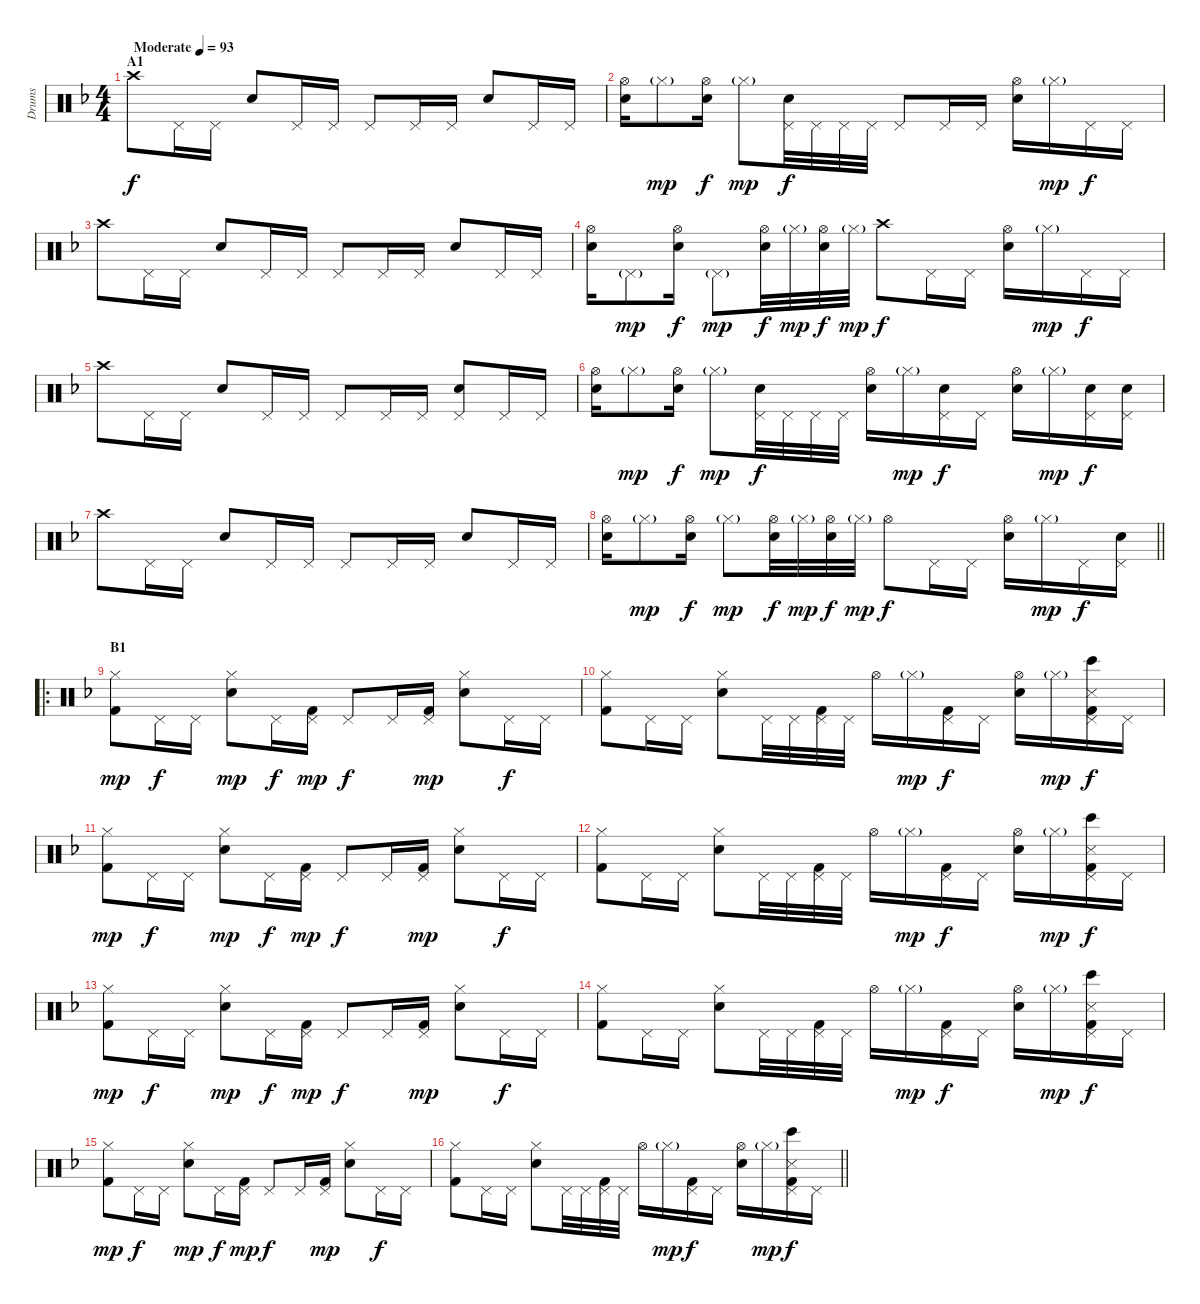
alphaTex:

\track ("Drums" "Drums") {instrument percussion}
\staff {score}
\articulation defaults
\ts (4 4)
\section ("" "A1")
\tempo (93 "Moderate")
\clef neutral
\ks f "Crash high (hit)".8{dy f} "Pedal Hi-Hat (hit)".16 "Pedal Hi-Hat (hit)".16 "Electric Snare (hit)".8 "Pedal Hi-Hat (hit)".16 "Pedal Hi-Hat (hit)".16 "Pedal Hi-Hat (hit)".8 "Pedal Hi-Hat (hit)".16 "Pedal Hi-Hat (hit)".16 "Electric Snare (hit)".8 "Pedal Hi-Hat (hit)".16 "Pedal Hi-Hat (hit)".16
|
("Hi-Hat (open)" "Electric Snare (hit)").16 "Hi-Hat (closed)"{g}.8{dy mp} ("Hi-Hat (open)" "Electric Snare (hit)").16{dy f} "Hi-Hat (closed)"{g}.8{dy mp} ("Pedal Hi-Hat (hit)" "Electric Snare (hit)").32{dy f} "Pedal Hi-Hat (hit)".32 "Pedal Hi-Hat (hit)".32 "Pedal Hi-Hat (hit)".32 "Pedal Hi-Hat (hit)".8 "Pedal Hi-Hat (hit)".16 "Pedal Hi-Hat (hit)".16 ("Hi-Hat (open)" "Electric Snare (hit)").16 "Hi-Hat (closed)"{g}.16{dy mp} "Pedal Hi-Hat (hit)".16{dy f} "Pedal Hi-Hat (hit)".16 |
"Crash high (hit)".8 "Pedal Hi-Hat (hit)".16 "Pedal Hi-Hat (hit)".16 "Electric Snare (hit)".8 "Pedal Hi-Hat (hit)".16 "Pedal Hi-Hat (hit)".16 "Pedal Hi-Hat (hit)".8 "Pedal Hi-Hat (hit)".16 "Pedal Hi-Hat (hit)".16 "Electric Snare (hit)".8 "Pedal Hi-Hat (hit)".16 "Pedal Hi-Hat (hit)".16 |
("Hi-Hat (open)" "Electric Snare (hit)").16 "Pedal Hi-Hat (hit)"{g}.8{dy mp} ("Hi-Hat (open)" "Electric Snare (hit)").16{dy f} "Pedal Hi-Hat (hit)"{g}.8{dy mp} ("Hi-Hat (open)" "Electric Snare (hit)").32{dy f} "Hi-Hat (closed)"{g}.32{dy mp} ("Hi-Hat (open)" "Electric Snare (hit)").32{dy f} "Hi-Hat (closed)"{g}.32{dy mp} "Crash high (hit)".8{dy f} "Pedal Hi-Hat (hit)".16 "Pedal Hi-Hat (hit)".16 ("Hi-Hat (open)" "Electric Snare (hit)").16 "Hi-Hat (closed)"{g}.16{dy mp} "Pedal Hi-Hat (hit)".16{dy f} "Pedal Hi-Hat (hit)".16 |
"Crash high (hit)".8 "Pedal Hi-Hat (hit)".16 "Pedal Hi-Hat (hit)".16 "Electric Snare (hit)".8 "Pedal Hi-Hat (hit)".16 "Pedal Hi-Hat (hit)".16 "Pedal Hi-Hat (hit)".8 "Pedal Hi-Hat (hit)".16 "Pedal Hi-Hat (hit)".16 ("Pedal Hi-Hat (hit)" "Electric Snare (hit)").8 "Pedal Hi-Hat (hit)".16 "Pedal Hi-Hat (hit)".16 |
("Hi-Hat (open)" "Electric Snare (hit)").16 "Hi-Hat (closed)"{g}.8{dy mp} ("Hi-Hat (open)" "Electric Snare (hit)").16{dy f} "Hi-Hat (closed)"{g}.8{dy mp} ("Pedal Hi-Hat (hit)" "Electric Snare (hit)").32{dy f} "Pedal Hi-Hat (hit)".32 "Pedal Hi-Hat (hit)".32 "Pedal Hi-Hat (hit)".32 ("Hi-Hat (open)" "Electric Snare (hit)").16 "Hi-Hat (closed)"{g}.16{dy mp} ("Pedal Hi-Hat (hit)" "Electric Snare (hit)").16{dy f} "Pedal Hi-Hat (hit)".16 ("Hi-Hat (open)" "Electric Snare (hit)").16 "Hi-Hat (closed)"{g}.16{dy mp} ("Pedal Hi-Hat (hit)" "Electric Snare (hit)").16{dy f} ("Pedal Hi-Hat (hit)" "Electric Snare (hit)").16 |
"Crash high (hit)".8 "Pedal Hi-Hat (hit)".16 "Pedal Hi-Hat (hit)".16 "Electric Snare (hit)".8 "Pedal Hi-Hat (hit)".16 "Pedal Hi-Hat (hit)".16 "Pedal Hi-Hat (hit)".8 "Pedal Hi-Hat (hit)".16 "Pedal Hi-Hat (hit)".16 "Electric Snare (hit)".8 "Pedal Hi-Hat (hit)".16 "Pedal Hi-Hat (hit)".16 |
\barLineRight lightlight
("Hi-Hat (open)" "Electric Snare (hit)").16 "Hi-Hat (closed)"{g}.8{dy mp} ("Hi-Hat (open)" "Electric Snare (hit)").16{dy f} "Hi-Hat (closed)"{g}.8{dy mp} ("Hi-Hat (open)" "Electric Snare (hit)").32{dy f} "Hi-Hat (closed)"{g}.32{dy mp} ("Hi-Hat (open)" "Electric Snare (hit)").32{dy f} "Hi-Hat (closed)"{g}.32{dy mp} "Hi-Hat (open)".8{dy f} "Pedal Hi-Hat (hit)".16 "Pedal Hi-Hat (hit)".16 ("Hi-Hat (open)" "Electric Snare (hit)").16 "Hi-Hat (closed)"{g}.16{dy mp} "Pedal Hi-Hat (hit)".16{dy f} ("Pedal Hi-Hat (hit)" "Electric Snare (hit)").16 |
\ro
\section ("" "B1")
("Hi-Hat (closed)" "Kick (hit) 2").8{dy mp} "Pedal Hi-Hat (hit)".16{dy f} "Pedal Hi-Hat (hit)".16 ("Hi-Hat (closed)" "Electric Snare (hit)").8{dy mp} "Pedal Hi-Hat (hit)".16{dy f} ("Pedal Hi-Hat (hit)" "Kick (hit) 2").16{dy mp} "Pedal Hi-Hat (hit)".8{dy f} "Pedal Hi-Hat (hit)".16 ("Pedal Hi-Hat (hit)" "Kick (hit) 2").16{dy mp} ("Hi-Hat (closed)" "Electric Snare (hit)").8 "Pedal Hi-Hat (hit)".16{dy f} "Pedal Hi-Hat (hit)".16 |
("Hi-Hat (closed)" "Kick (hit) 2").8 "Pedal Hi-Hat (hit)".16 "Pedal Hi-Hat (hit)".16 ("Hi-Hat (closed)" "Electric Snare (hit)").8 "Pedal Hi-Hat (hit)".32 "Pedal Hi-Hat (hit)".32 ("Pedal Hi-Hat (hit)" "Kick (hit) 2").32 "Pedal Hi-Hat (hit)".32 "Hi-Hat (open)".16 "Hi-Hat (closed)"{g}.16{dy mp} ("Pedal Hi-Hat (hit)" "Kick (hit) 2").16{dy f} "Pedal Hi-Hat (hit)".16 ("Hi-Hat (open)" "Electric Snare (hit)").16 "Hi-Hat (closed)"{g}.16{dy mp} ("Pedal Hi-Hat (hit)" "Snare (side stick) 3" "Bongo High (hit)" "Kick (hit) 2").16{dy f} "Pedal Hi-Hat (hit)".16 |
("Hi-Hat (closed)" "Kick (hit) 2").8{dy mp} "Pedal Hi-Hat (hit)".16{dy f} "Pedal Hi-Hat (hit)".16 ("Hi-Hat (closed)" "Electric Snare (hit)").8{dy mp} "Pedal Hi-Hat (hit)".16{dy f} ("Pedal Hi-Hat (hit)" "Kick (hit) 2").16{dy mp} "Pedal Hi-Hat (hit)".8{dy f} "Pedal Hi-Hat (hit)".16 ("Pedal Hi-Hat (hit)" "Kick (hit) 2").16{dy mp} ("Hi-Hat (closed)" "Electric Snare (hit)").8 "Pedal Hi-Hat (hit)".16{dy f} "Pedal Hi-Hat (hit)".16 |
("Hi-Hat (closed)" "Kick (hit) 2").8 "Pedal Hi-Hat (hit)".16 "Pedal Hi-Hat (hit)".16 ("Hi-Hat (closed)" "Electric Snare (hit)").8 "Pedal Hi-Hat (hit)".32 "Pedal Hi-Hat (hit)".32 ("Pedal Hi-Hat (hit)" "Kick (hit) 2").32 "Pedal Hi-Hat (hit)".32 "Hi-Hat (open)".16 "Hi-Hat (closed)"{g}.16{dy mp} ("Pedal Hi-Hat (hit)" "Kick (hit) 2").16{dy f} "Pedal Hi-Hat (hit)".16 ("Hi-Hat (open)" "Electric Snare (hit)").16 "Hi-Hat (closed)"{g}.16{dy mp} ("Pedal Hi-Hat (hit)" "Snare (side stick) 3" "Bongo High (hit)" "Kick (hit) 2").16{dy f} "Pedal Hi-Hat (hit)".16 |
("Hi-Hat (closed)" "Kick (hit) 2").8{dy mp} "Pedal Hi-Hat (hit)".16{dy f} "Pedal Hi-Hat (hit)".16 ("Hi-Hat (closed)" "Electric Snare (hit)").8{dy mp} "Pedal Hi-Hat (hit)".16{dy f} ("Pedal Hi-Hat (hit)" "Kick (hit) 2").16{dy mp} "Pedal Hi-Hat (hit)".8{dy f} "Pedal Hi-Hat (hit)".16 ("Pedal Hi-Hat (hit)" "Kick (hit) 2").16{dy mp} ("Hi-Hat (closed)" "Electric Snare (hit)").8 "Pedal Hi-Hat (hit)".16{dy f} "Pedal Hi-Hat (hit)".16 |
("Hi-Hat (closed)" "Kick (hit) 2").8 "Pedal Hi-Hat (hit)".16 "Pedal Hi-Hat (hit)".16 ("Hi-Hat (closed)" "Electric Snare (hit)").8 "Pedal Hi-Hat (hit)".32 "Pedal Hi-Hat (hit)".32 ("Pedal Hi-Hat (hit)" "Kick (hit) 2").32 "Pedal Hi-Hat (hit)".32 "Hi-Hat (open)".16 "Hi-Hat (closed)"{g}.16{dy mp} ("Pedal Hi-Hat (hit)" "Kick (hit) 2").16{dy f} "Pedal Hi-Hat (hit)".16 ("Hi-Hat (open)" "Electric Snare (hit)").16 "Hi-Hat (closed)"{g}.16{dy mp} ("Pedal Hi-Hat (hit)" "Snare (side stick) 3" "Bongo High (hit)" "Kick (hit) 2").16{dy f} "Pedal Hi-Hat (hit)".16 |
("Hi-Hat (closed)" "Kick (hit) 2").8{dy mp} "Pedal Hi-Hat (hit)".16{dy f} "Pedal Hi-Hat (hit)".16 ("Hi-Hat (closed)" "Electric Snare (hit)").8{dy mp} "Pedal Hi-Hat (hit)".16{dy f} ("Pedal Hi-Hat (hit)" "Kick (hit) 2").16{dy mp} "Pedal Hi-Hat (hit)".8{dy f} "Pedal Hi-Hat (hit)".16 ("Pedal Hi-Hat (hit)" "Kick (hit) 2").16{dy mp} ("Hi-Hat (closed)" "Electric Snare (hit)").8 "Pedal Hi-Hat (hit)".16{dy f} "Pedal Hi-Hat (hit)".16 |
\barLineRight lightlight
("Hi-Hat (closed)" "Kick (hit) 2").8 "Pedal Hi-Hat (hit)".16 "Pedal Hi-Hat (hit)".16 ("Hi-Hat (closed)" "Electric Snare (hit)").8 "Pedal Hi-Hat (hit)".32 "Pedal Hi-Hat (hit)".32 ("Pedal Hi-Hat (hit)" "Kick (hit) 2").32 "Pedal Hi-Hat (hit)".32 "Hi-Hat (open)".16 "Hi-Hat (closed)"{g}.16{dy mp} ("Pedal Hi-Hat (hit)" "Kick (hit) 2").16{dy f} "Pedal Hi-Hat (hit)".16 ("Hi-Hat (open)" "Electric Snare (hit)").16 "Hi-Hat (closed)"{g}.16{dy mp} ("Pedal Hi-Hat (hit)" "Snare (side stick) 3" "Bongo High (hit)" "Kick (hit) 2").16{dy f} "Pedal Hi-Hat (hit)".16
